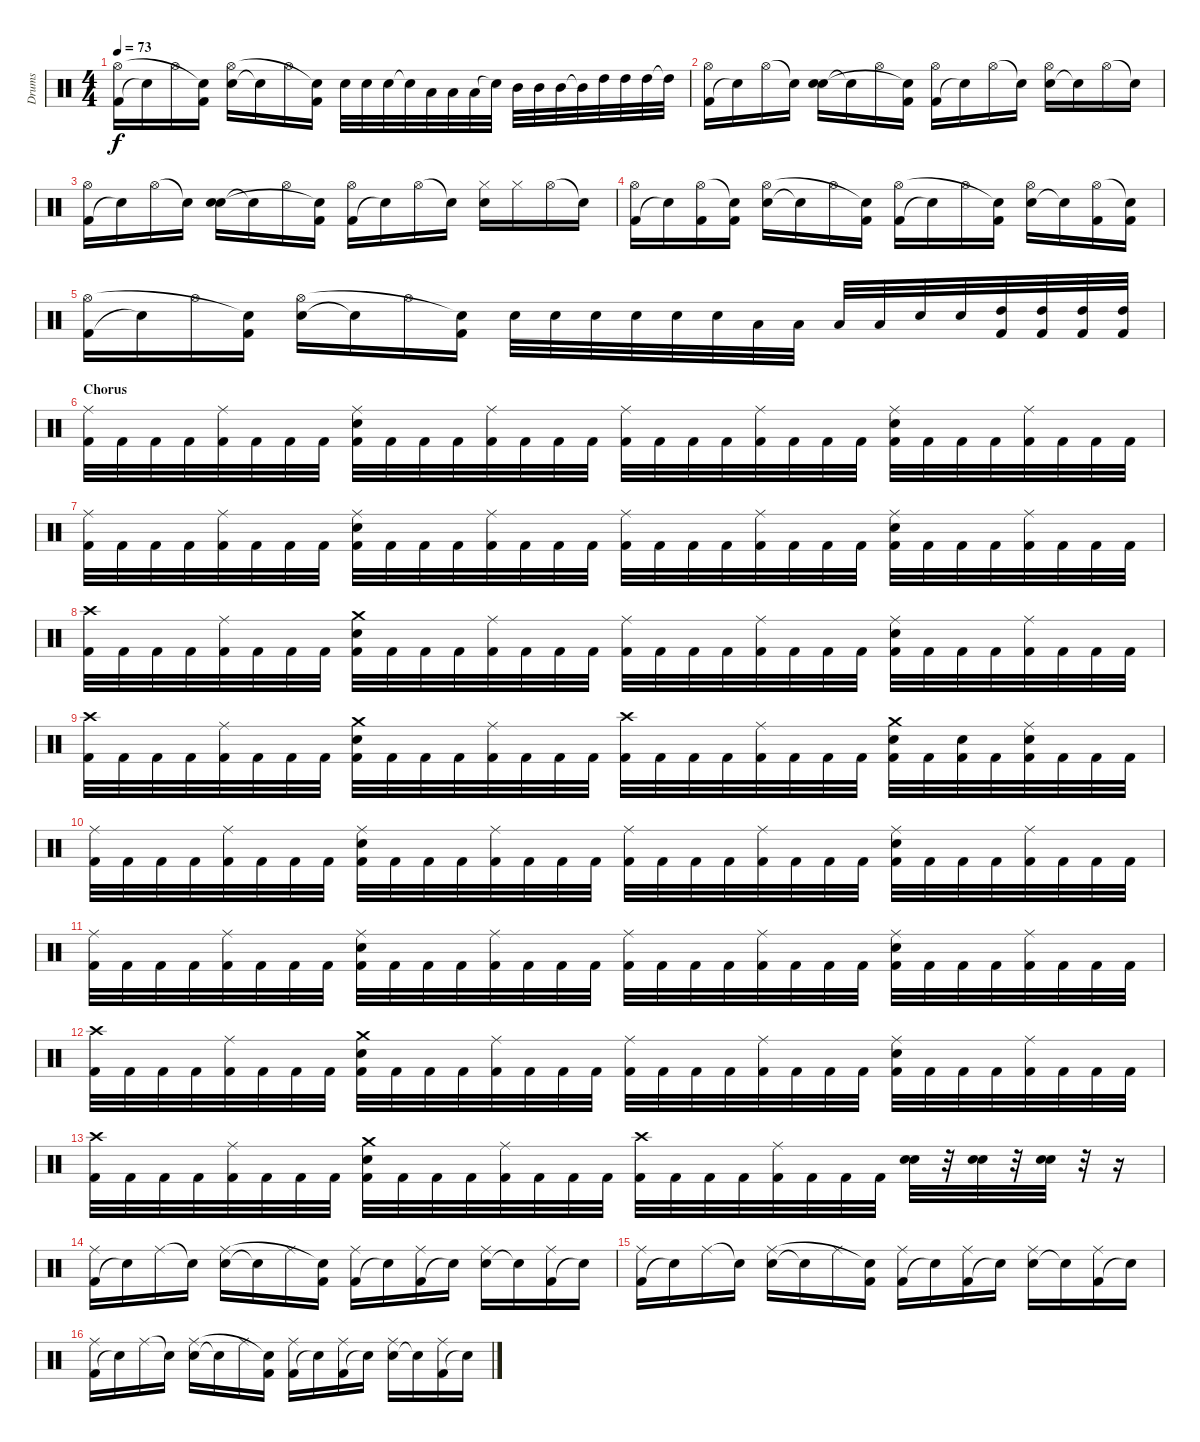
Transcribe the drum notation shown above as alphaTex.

\track ("Drums" "Drums") {instrument percussion}
\staff {score}
\articulation defaults
\ts (4 4)
\tempo 73
\clef neutral
\ks c
("Kick (hit) 2" "Hi-Hat (open)").16{dy f} "Snare (hit)"{t}.16 "Hi-Hat (open)".16 ("Kick (hit) 2" "Snare (hit)"{t}).16 ("Snare (hit) 2" "Hi-Hat (open)").16 "Snare (hit)"{t}.16 "Hi-Hat (open)".16 ("Kick (hit) 2" "Snare (hit)"{t}).16 "Snare (hit) 2".32 "Snare (hit) 2".32 "Snare (hit) 2".32 "Snare (hit)"{t}.32 "Low Tom (hit)".32 "Low Tom (hit)".32 "Low Tom (hit)".32 "Snare (hit)"{t}.32 "Mid Tom (hit)".32 "Mid Tom (hit)".32 "Mid Tom (hit)".32 "Mid Tom (hit)"{t}.32 "High Tom (hit)".32 "High Tom (hit)".32 "High Tom (hit)".32 "High Tom (hit)"{t}.32 |
("Kick (hit) 2" "Hi-Hat (open)").16 "Snare (hit)"{t}.16 "Hi-Hat (open)".16 "Snare (hit)"{t}.16 ("Snare (hit) 2" "Snare (hit) 2").16 "Snare (hit)"{t}.16 "Hi-Hat (open)".16 ("Kick (hit) 2" "Snare (hit)"{t}).16 ("Kick (hit) 2" "Hi-Hat (open)").16 "Snare (hit)"{t}.16 "Hi-Hat (open)".16 "Snare (hit)"{t}.16 ("Snare (hit) 2" "Hi-Hat (open)").16 "Snare (hit)"{t}.16 "Hi-Hat (open)".16 "Snare (hit)"{t}.16 |
("Kick (hit) 2" "Hi-Hat (open)").16 "Snare (hit)"{t}.16 "Hi-Hat (open)".16 "Snare (hit)"{t}.16 ("Snare (hit) 2" "Snare (hit) 2").16 "Snare (hit)"{t}.16 "Hi-Hat (open)".16 ("Kick (hit) 2" "Snare (hit)"{t}).16 ("Kick (hit) 2" "Hi-Hat (open)").16 "Snare (hit)"{t}.16 "Hi-Hat (open)".16 "Snare (hit)"{t}.16 ("Snare (hit) 2" "Hi-Hat (closed)").16 "Hi-Hat (closed)".16 "Hi-Hat (open)".16 "Snare (hit)"{t}.16 |
("Kick (hit) 2" "Hi-Hat (open)").16 "Snare (hit)"{t}.16 ("Kick (hit) 2" "Hi-Hat (open)").16 ("Kick (hit) 2" "Snare (hit)"{t}).16 ("Snare (hit) 2" "Hi-Hat (open)").16 "Snare (hit)"{t}.16 "Hi-Hat (open)".16 ("Kick (hit) 2" "Snare (hit)"{t}).16 ("Kick (hit) 2" "Hi-Hat (open)").16 "Snare (hit)"{t}.16 "Hi-Hat (open)".16 ("Kick (hit) 2" "Snare (hit)"{t}).16 ("Snare (hit) 2" "Hi-Hat (open)").16 "Snare (hit)"{t}.16 ("Kick (hit) 2" "Hi-Hat (open)").16 ("Kick (hit) 2" "Snare (hit)"{t}).16 |
("Kick (hit) 2" "Hi-Hat (open)").16 "Snare (hit)"{t}.16 "Hi-Hat (open)".16 ("Kick (hit) 2" "Snare (hit)"{t}).16 ("Snare (hit) 2" "Hi-Hat (open)").16 "Snare (hit)"{t}.16 "Hi-Hat (open)".16 ("Kick (hit) 2" "Snare (hit)"{t}).16 "Snare (hit) 2".32 "Snare (hit) 2".32 "Snare (hit) 2".32 "Snare (hit) 2".32 "Snare (hit) 2".32 "Snare (hit) 2".32 "Low Tom (hit)".32 "Low Tom (hit)".32 "Low Tom (hit)".32 "Low Tom (hit)".32 "Snare (hit) 2".32 "Snare (hit) 2".32 ("Kick (hit) 2" "High Tom (hit)").32 ("Kick (hit) 2" "High Tom (hit)").32 ("Kick (hit) 2" "High Tom (hit)").32 ("Kick (hit) 2" "High Tom (hit)").32 |
\section ("" "Chorus")
("Kick (hit) 2" "Ride (middle)").32 "Kick (hit) 2".32 "Kick (hit) 2".32 "Kick (hit) 2".32 ("Kick (hit) 2" "Ride (middle)").32 "Kick (hit) 2".32 "Kick (hit) 2".32 "Kick (hit) 2".32 ("Kick (hit) 2" "Snare (hit) 2" "Ride (middle)").32 "Kick (hit) 2".32 "Kick (hit) 2".32 "Kick (hit) 2".32 ("Kick (hit) 2" "Ride (middle)").32 "Kick (hit) 2".32 "Kick (hit) 2".32 "Kick (hit) 2".32 ("Kick (hit) 2" "Ride (middle)").32 "Kick (hit) 2".32 "Kick (hit) 2".32 "Kick (hit) 2".32 ("Kick (hit) 2" "Ride (middle)").32 "Kick (hit) 2".32 "Kick (hit) 2".32 "Kick (hit) 2".32 ("Kick (hit) 2" "Snare (hit) 2" "Ride (middle)").32 "Kick (hit) 2".32 "Kick (hit) 2".32 "Kick (hit) 2".32 ("Kick (hit) 2" "Ride (middle)").32 "Kick (hit) 2".32 "Kick (hit) 2".32 "Kick (hit) 2".32 |
("Kick (hit) 2" "Ride (middle)").32 "Kick (hit) 2".32 "Kick (hit) 2".32 "Kick (hit) 2".32 ("Kick (hit) 2" "Ride (middle)").32 "Kick (hit) 2".32 "Kick (hit) 2".32 "Kick (hit) 2".32 ("Kick (hit) 2" "Snare (hit) 2" "Ride (middle)").32 "Kick (hit) 2".32 "Kick (hit) 2".32 "Kick (hit) 2".32 ("Kick (hit) 2" "Ride (middle)").32 "Kick (hit) 2".32 "Kick (hit) 2".32 "Kick (hit) 2".32 ("Kick (hit) 2" "Ride (middle)").32 "Kick (hit) 2".32 "Kick (hit) 2".32 "Kick (hit) 2".32 ("Kick (hit) 2" "Ride (middle)").32 "Kick (hit) 2".32 "Kick (hit) 2".32 "Kick (hit) 2".32 ("Kick (hit) 2" "Snare (hit) 2" "Ride (middle)").32 "Kick (hit) 2".32 "Kick (hit) 2".32 "Kick (hit) 2".32 ("Kick (hit) 2" "Ride (middle)").32 "Kick (hit) 2".32 "Kick (hit) 2".32 "Kick (hit) 2".32 |
("Kick (hit) 2" "Crash high (hit)").32 "Kick (hit) 2".32 "Kick (hit) 2".32 "Kick (hit) 2".32 ("Kick (hit) 2" "Ride (middle)").32 "Kick (hit) 2".32 "Kick (hit) 2".32 "Kick (hit) 2".32 ("Kick (hit) 2" "Snare (hit) 2" "Crash medium (hit)").32 "Kick (hit) 2".32 "Kick (hit) 2".32 "Kick (hit) 2".32 ("Kick (hit) 2" "Ride (middle)").32 "Kick (hit) 2".32 "Kick (hit) 2".32 "Kick (hit) 2".32 ("Kick (hit) 2" "Ride (middle)").32 "Kick (hit) 2".32 "Kick (hit) 2".32 "Kick (hit) 2".32 ("Kick (hit) 2" "Ride (middle)").32 "Kick (hit) 2".32 "Kick (hit) 2".32 "Kick (hit) 2".32 ("Kick (hit) 2" "Snare (hit) 2" "Ride (middle)").32 "Kick (hit) 2".32 "Kick (hit) 2".32 "Kick (hit) 2".32 ("Kick (hit) 2" "Ride (middle)").32 "Kick (hit) 2".32 "Kick (hit) 2".32 "Kick (hit) 2".32 |
("Kick (hit) 2" "Crash high (hit)").32 "Kick (hit) 2".32 "Kick (hit) 2".32 "Kick (hit) 2".32 ("Kick (hit) 2" "Ride (middle)").32 "Kick (hit) 2".32 "Kick (hit) 2".32 "Kick (hit) 2".32 ("Kick (hit) 2" "Snare (hit) 2" "Crash medium (hit)").32 "Kick (hit) 2".32 "Kick (hit) 2".32 "Kick (hit) 2".32 ("Kick (hit) 2" "Ride (middle)").32 "Kick (hit) 2".32 "Kick (hit) 2".32 "Kick (hit) 2".32 ("Kick (hit) 2" "Crash high (hit)").32 "Kick (hit) 2".32 "Kick (hit) 2".32 "Kick (hit) 2".32 ("Kick (hit) 2" "Ride (middle)").32 "Kick (hit) 2".32 "Kick (hit) 2".32 "Kick (hit) 2".32 ("Kick (hit) 2" "Snare (hit) 2" "Crash medium (hit)").32 "Kick (hit) 2".32 ("Kick (hit) 2" "Snare (hit) 2").32 "Kick (hit) 2".32 ("Kick (hit) 2" "Snare (hit) 2" "Ride (middle)").32 "Kick (hit) 2".32 "Kick (hit) 2".32 "Kick (hit) 2".32 |
("Kick (hit) 2" "Ride (middle)").32 "Kick (hit) 2".32 "Kick (hit) 2".32 "Kick (hit) 2".32 ("Kick (hit) 2" "Ride (middle)").32 "Kick (hit) 2".32 "Kick (hit) 2".32 "Kick (hit) 2".32 ("Kick (hit) 2" "Snare (hit) 2" "Ride (middle)").32 "Kick (hit) 2".32 "Kick (hit) 2".32 "Kick (hit) 2".32 ("Kick (hit) 2" "Ride (middle)").32 "Kick (hit) 2".32 "Kick (hit) 2".32 "Kick (hit) 2".32 ("Kick (hit) 2" "Ride (middle)").32 "Kick (hit) 2".32 "Kick (hit) 2".32 "Kick (hit) 2".32 ("Kick (hit) 2" "Ride (middle)").32 "Kick (hit) 2".32 "Kick (hit) 2".32 "Kick (hit) 2".32 ("Kick (hit) 2" "Snare (hit) 2" "Ride (middle)").32 "Kick (hit) 2".32 "Kick (hit) 2".32 "Kick (hit) 2".32 ("Kick (hit) 2" "Ride (middle)").32 "Kick (hit) 2".32 "Kick (hit) 2".32 "Kick (hit) 2".32 |
("Kick (hit) 2" "Ride (middle)").32 "Kick (hit) 2".32 "Kick (hit) 2".32 "Kick (hit) 2".32 ("Kick (hit) 2" "Ride (middle)").32 "Kick (hit) 2".32 "Kick (hit) 2".32 "Kick (hit) 2".32 ("Kick (hit) 2" "Snare (hit) 2" "Ride (middle)").32 "Kick (hit) 2".32 "Kick (hit) 2".32 "Kick (hit) 2".32 ("Kick (hit) 2" "Ride (middle)").32 "Kick (hit) 2".32 "Kick (hit) 2".32 "Kick (hit) 2".32 ("Kick (hit) 2" "Ride (middle)").32 "Kick (hit) 2".32 "Kick (hit) 2".32 "Kick (hit) 2".32 ("Kick (hit) 2" "Ride (middle)").32 "Kick (hit) 2".32 "Kick (hit) 2".32 "Kick (hit) 2".32 ("Kick (hit) 2" "Snare (hit) 2" "Ride (middle)").32 "Kick (hit) 2".32 "Kick (hit) 2".32 "Kick (hit) 2".32 ("Kick (hit) 2" "Ride (middle)").32 "Kick (hit) 2".32 "Kick (hit) 2".32 "Kick (hit) 2".32 |
("Kick (hit) 2" "Crash high (hit)").32 "Kick (hit) 2".32 "Kick (hit) 2".32 "Kick (hit) 2".32 ("Kick (hit) 2" "Ride (middle)").32 "Kick (hit) 2".32 "Kick (hit) 2".32 "Kick (hit) 2".32 ("Kick (hit) 2" "Snare (hit) 2" "Crash medium (hit)").32 "Kick (hit) 2".32 "Kick (hit) 2".32 "Kick (hit) 2".32 ("Kick (hit) 2" "Ride (middle)").32 "Kick (hit) 2".32 "Kick (hit) 2".32 "Kick (hit) 2".32 ("Kick (hit) 2" "Ride (middle)").32 "Kick (hit) 2".32 "Kick (hit) 2".32 "Kick (hit) 2".32 ("Kick (hit) 2" "Ride (middle)").32 "Kick (hit) 2".32 "Kick (hit) 2".32 "Kick (hit) 2".32 ("Kick (hit) 2" "Snare (hit) 2" "Ride (middle)").32 "Kick (hit) 2".32 "Kick (hit) 2".32 "Kick (hit) 2".32 ("Kick (hit) 2" "Ride (middle)").32 "Kick (hit) 2".32 "Kick (hit) 2".32 "Kick (hit) 2".32 |
("Kick (hit) 2" "Crash high (hit)").32 "Kick (hit) 2".32 "Kick (hit) 2".32 "Kick (hit) 2".32 ("Kick (hit) 2" "Ride (middle)").32 "Kick (hit) 2".32 "Kick (hit) 2".32 "Kick (hit) 2".32 ("Kick (hit) 2" "Snare (hit) 2" "Crash medium (hit)").32 "Kick (hit) 2".32 "Kick (hit) 2".32 "Kick (hit) 2".32 ("Kick (hit) 2" "Ride (middle)").32 "Kick (hit) 2".32 "Kick (hit) 2".32 "Kick (hit) 2".32 ("Kick (hit) 2" "Crash high (hit)").32 "Kick (hit) 2".32 "Kick (hit) 2".32 "Kick (hit) 2".32 ("Kick (hit) 2" "Ride (middle)").32 "Kick (hit) 2".32 "Kick (hit) 2".32 "Kick (hit) 2".32 ("Snare (hit) 2" "Snare (hit) 2").32 r.32 ("Snare (hit) 2" "Snare (hit) 2").32 r.32 ("Snare (hit) 2" "Snare (hit) 2").32 r.32 r.16 |
("Kick (hit) 2" "Ride (middle)").16 "Snare (hit)"{t}.16 "Ride (middle)".16 "Snare (hit)"{t}.16 ("Snare (hit) 2" "Ride (middle)").16 "Snare (hit)"{t}.16 "Ride (middle)".16 ("Kick (hit) 2" "Snare (hit)"{t}).16 ("Kick (hit) 2" "Ride (middle)").16 "Snare (hit)"{t}.16 ("Kick (hit) 2" "Ride (middle)").16 "Snare (hit)"{t}.16 ("Snare (hit) 2" "Ride (middle)").16 "Snare (hit)"{t}.16 ("Kick (hit) 2" "Ride (middle)").16 "Snare (hit)"{t}.16 |
("Kick (hit) 2" "Ride (middle)").16 "Snare (hit)"{t}.16 "Ride (middle)".16 "Snare (hit)"{t}.16 ("Snare (hit) 2" "Ride (middle)").16 "Snare (hit)"{t}.16 "Ride (middle)".16 ("Kick (hit) 2" "Snare (hit)"{t}).16 ("Kick (hit) 2" "Ride (middle)").16 "Snare (hit)"{t}.16 ("Kick (hit) 2" "Ride (middle)").16 "Snare (hit)"{t}.16 ("Snare (hit) 2" "Ride (middle)").16 "Snare (hit)"{t}.16 ("Kick (hit) 2" "Ride (middle)").16 "Snare (hit)"{t}.16 |
("Kick (hit) 2" "Ride (middle)").16 "Snare (hit)"{t}.16 "Ride (middle)".16 "Snare (hit)"{t}.16 ("Snare (hit) 2" "Ride (middle)").16 "Snare (hit)"{t}.16 "Ride (middle)".16 ("Kick (hit) 2" "Snare (hit)"{t}).16 ("Kick (hit) 2" "Ride (middle)").16 "Snare (hit)"{t}.16 ("Kick (hit) 2" "Ride (middle)").16 "Snare (hit)"{t}.16 ("Snare (hit) 2" "Ride (middle)").16 "Snare (hit)"{t}.16 ("Kick (hit) 2" "Ride (middle)").16 "Snare (hit)"{t}.16
